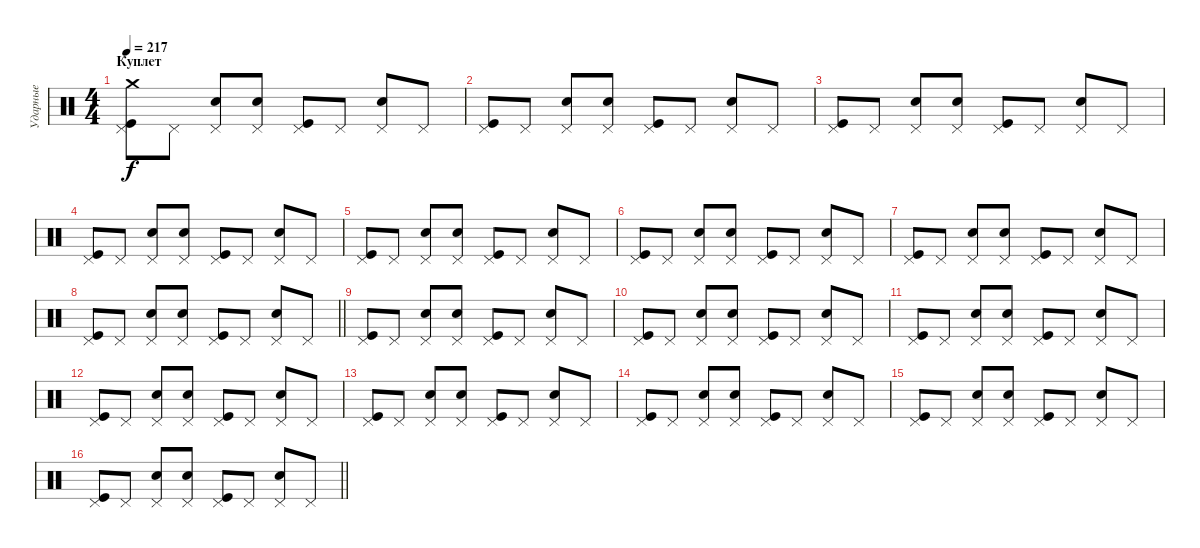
\track ("Ударные" "Ударные") {instrument percussion}
\staff {score}
\articulation defaults
\ts (4 4)
\section ("" "Куплет")
\tempo 217
\clef neutral
\ks c
("Pedal Hi-Hat (hit)" "Kick (hit)" "Crash medium (hit)").8{dy f} "Pedal Hi-Hat (hit)".8 ("Pedal Hi-Hat (hit)" "Snare (hit) 2").8 ("Pedal Hi-Hat (hit)" "Snare (hit) 2").8 ("Pedal Hi-Hat (hit)" "Kick (hit)").8 "Pedal Hi-Hat (hit)".8 ("Pedal Hi-Hat (hit)" "Snare (hit) 2").8 "Pedal Hi-Hat (hit)".8 |
("Pedal Hi-Hat (hit)" "Kick (hit)").8 "Pedal Hi-Hat (hit)".8 ("Pedal Hi-Hat (hit)" "Snare (hit) 2").8 ("Pedal Hi-Hat (hit)" "Snare (hit) 2").8 ("Pedal Hi-Hat (hit)" "Kick (hit)").8 "Pedal Hi-Hat (hit)".8 ("Pedal Hi-Hat (hit)" "Snare (hit) 2").8 "Pedal Hi-Hat (hit)".8 |
("Pedal Hi-Hat (hit)" "Kick (hit)").8 "Pedal Hi-Hat (hit)".8 ("Pedal Hi-Hat (hit)" "Snare (hit) 2").8 ("Pedal Hi-Hat (hit)" "Snare (hit) 2").8 ("Pedal Hi-Hat (hit)" "Kick (hit)").8 "Pedal Hi-Hat (hit)".8 ("Pedal Hi-Hat (hit)" "Snare (hit) 2").8 "Pedal Hi-Hat (hit)".8 |
("Pedal Hi-Hat (hit)" "Kick (hit)").8 "Pedal Hi-Hat (hit)".8 ("Pedal Hi-Hat (hit)" "Snare (hit) 2").8 ("Pedal Hi-Hat (hit)" "Snare (hit) 2").8 ("Pedal Hi-Hat (hit)" "Kick (hit)").8 "Pedal Hi-Hat (hit)".8 ("Pedal Hi-Hat (hit)" "Snare (hit) 2").8 "Pedal Hi-Hat (hit)".8 |
("Pedal Hi-Hat (hit)" "Kick (hit)").8 "Pedal Hi-Hat (hit)".8 ("Pedal Hi-Hat (hit)" "Snare (hit) 2").8 ("Pedal Hi-Hat (hit)" "Snare (hit) 2").8 ("Pedal Hi-Hat (hit)" "Kick (hit)").8 "Pedal Hi-Hat (hit)".8 ("Pedal Hi-Hat (hit)" "Snare (hit) 2").8 "Pedal Hi-Hat (hit)".8 |
("Pedal Hi-Hat (hit)" "Kick (hit)").8 "Pedal Hi-Hat (hit)".8 ("Pedal Hi-Hat (hit)" "Snare (hit) 2").8 ("Pedal Hi-Hat (hit)" "Snare (hit) 2").8 ("Pedal Hi-Hat (hit)" "Kick (hit)").8 "Pedal Hi-Hat (hit)".8 ("Pedal Hi-Hat (hit)" "Snare (hit) 2").8 "Pedal Hi-Hat (hit)".8 |
("Pedal Hi-Hat (hit)" "Kick (hit)").8 "Pedal Hi-Hat (hit)".8 ("Pedal Hi-Hat (hit)" "Snare (hit) 2").8 ("Pedal Hi-Hat (hit)" "Snare (hit) 2").8 ("Pedal Hi-Hat (hit)" "Kick (hit)").8 "Pedal Hi-Hat (hit)".8 ("Pedal Hi-Hat (hit)" "Snare (hit) 2").8 "Pedal Hi-Hat (hit)".8 |
\barLineRight lightlight
("Pedal Hi-Hat (hit)" "Kick (hit)").8 "Pedal Hi-Hat (hit)".8 ("Pedal Hi-Hat (hit)" "Snare (hit) 2").8 ("Pedal Hi-Hat (hit)" "Snare (hit) 2").8 ("Pedal Hi-Hat (hit)" "Kick (hit)").8 "Pedal Hi-Hat (hit)".8 ("Pedal Hi-Hat (hit)" "Snare (hit) 2").8 "Pedal Hi-Hat (hit)".8 |
("Pedal Hi-Hat (hit)" "Kick (hit)").8 "Pedal Hi-Hat (hit)".8 ("Pedal Hi-Hat (hit)" "Snare (hit) 2").8 ("Pedal Hi-Hat (hit)" "Snare (hit) 2").8 ("Pedal Hi-Hat (hit)" "Kick (hit)").8 "Pedal Hi-Hat (hit)".8 ("Pedal Hi-Hat (hit)" "Snare (hit) 2").8 "Pedal Hi-Hat (hit)".8 |
("Pedal Hi-Hat (hit)" "Kick (hit)").8 "Pedal Hi-Hat (hit)".8 ("Pedal Hi-Hat (hit)" "Snare (hit) 2").8 ("Pedal Hi-Hat (hit)" "Snare (hit) 2").8 ("Pedal Hi-Hat (hit)" "Kick (hit)").8 "Pedal Hi-Hat (hit)".8 ("Pedal Hi-Hat (hit)" "Snare (hit) 2").8 "Pedal Hi-Hat (hit)".8 |
("Pedal Hi-Hat (hit)" "Kick (hit)").8 "Pedal Hi-Hat (hit)".8 ("Pedal Hi-Hat (hit)" "Snare (hit) 2").8 ("Pedal Hi-Hat (hit)" "Snare (hit) 2").8 ("Pedal Hi-Hat (hit)" "Kick (hit)").8 "Pedal Hi-Hat (hit)".8 ("Pedal Hi-Hat (hit)" "Snare (hit) 2").8 "Pedal Hi-Hat (hit)".8 |
("Pedal Hi-Hat (hit)" "Kick (hit)").8 "Pedal Hi-Hat (hit)".8 ("Pedal Hi-Hat (hit)" "Snare (hit) 2").8 ("Pedal Hi-Hat (hit)" "Snare (hit) 2").8 ("Pedal Hi-Hat (hit)" "Kick (hit)").8 "Pedal Hi-Hat (hit)".8 ("Pedal Hi-Hat (hit)" "Snare (hit) 2").8 "Pedal Hi-Hat (hit)".8 |
("Pedal Hi-Hat (hit)" "Kick (hit)").8 "Pedal Hi-Hat (hit)".8 ("Pedal Hi-Hat (hit)" "Snare (hit) 2").8 ("Pedal Hi-Hat (hit)" "Snare (hit) 2").8 ("Pedal Hi-Hat (hit)" "Kick (hit)").8 "Pedal Hi-Hat (hit)".8 ("Pedal Hi-Hat (hit)" "Snare (hit) 2").8 "Pedal Hi-Hat (hit)".8 |
("Pedal Hi-Hat (hit)" "Kick (hit)").8 "Pedal Hi-Hat (hit)".8 ("Pedal Hi-Hat (hit)" "Snare (hit) 2").8 ("Pedal Hi-Hat (hit)" "Snare (hit) 2").8 ("Pedal Hi-Hat (hit)" "Kick (hit)").8 "Pedal Hi-Hat (hit)".8 ("Pedal Hi-Hat (hit)" "Snare (hit) 2").8 "Pedal Hi-Hat (hit)".8 |
("Pedal Hi-Hat (hit)" "Kick (hit)").8 "Pedal Hi-Hat (hit)".8 ("Pedal Hi-Hat (hit)" "Snare (hit) 2").8 ("Pedal Hi-Hat (hit)" "Snare (hit) 2").8 ("Pedal Hi-Hat (hit)" "Kick (hit)").8 "Pedal Hi-Hat (hit)".8 ("Pedal Hi-Hat (hit)" "Snare (hit) 2").8 "Pedal Hi-Hat (hit)".8 |
\barLineRight lightlight
("Pedal Hi-Hat (hit)" "Kick (hit)").8 "Pedal Hi-Hat (hit)".8 ("Pedal Hi-Hat (hit)" "Snare (hit) 2").8 ("Pedal Hi-Hat (hit)" "Snare (hit) 2").8 ("Pedal Hi-Hat (hit)" "Kick (hit)").8 "Pedal Hi-Hat (hit)".8 ("Pedal Hi-Hat (hit)" "Snare (hit) 2").8 "Pedal Hi-Hat (hit)".8
